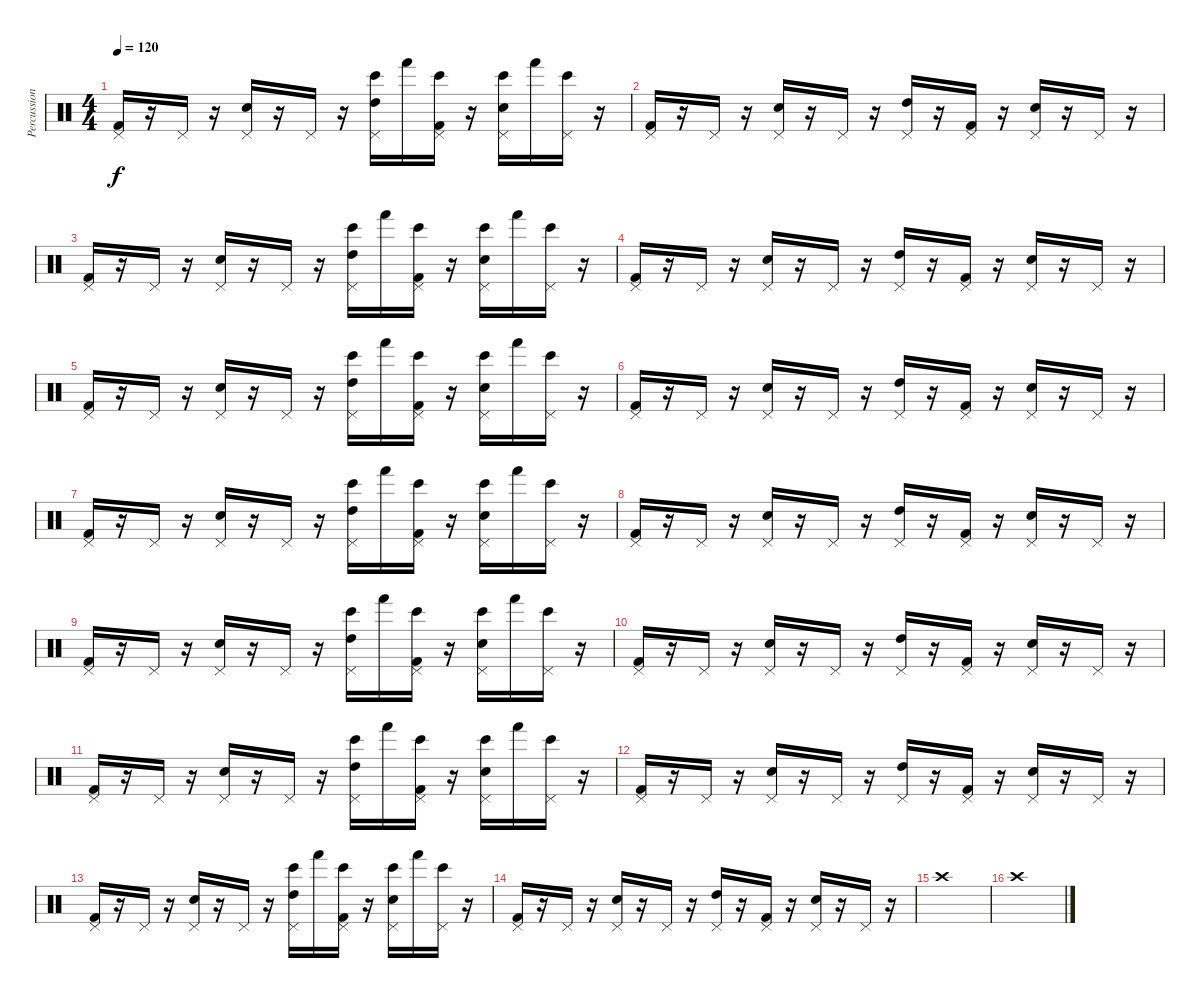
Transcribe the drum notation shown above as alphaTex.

\track ("Percussion" "Percussion") {instrument percussion}
\staff {score}
\articulation defaults
\ts (4 4)
\tempo 120
\clef neutral
\ks c
("Pedal Hi-Hat (hit)" "Kick (hit) 2").16{dy f} r.16 "Pedal Hi-Hat (hit)".16 r.16 ("Pedal Hi-Hat (hit)" "Snare (hit) 2").16 r.16 "Pedal Hi-Hat (hit)".16 r.16 ("Bongo High (hit)" "Pedal Hi-Hat (hit)" "High Tom (hit)").16 "Hand (hit)".16 ("Bongo High (hit)" "Pedal Hi-Hat (hit)" "Kick (hit) 2").16 r.16 ("Bongo High (hit)" "Pedal Hi-Hat (hit)" "Snare (hit) 2").16 "Hand (hit)".16 ("Bongo High (hit)" "Pedal Hi-Hat (hit)").16 r.16 |
("Pedal Hi-Hat (hit)" "Kick (hit) 2").16 r.16 "Pedal Hi-Hat (hit)".16 r.16 ("Pedal Hi-Hat (hit)" "Snare (hit) 2").16 r.16 "Pedal Hi-Hat (hit)".16 r.16 ("Pedal Hi-Hat (hit)" "High Tom (hit)").16 r.16 ("Pedal Hi-Hat (hit)" "Kick (hit) 2").16 r.16 ("Pedal Hi-Hat (hit)" "Snare (hit) 2").16 r.16 "Pedal Hi-Hat (hit)".16 r.16 |
("Pedal Hi-Hat (hit)" "Kick (hit) 2").16 r.16 "Pedal Hi-Hat (hit)".16 r.16 ("Pedal Hi-Hat (hit)" "Snare (hit) 2").16 r.16 "Pedal Hi-Hat (hit)".16 r.16 ("Bongo High (hit)" "Pedal Hi-Hat (hit)" "High Tom (hit)").16 "Hand (hit)".16 ("Bongo High (hit)" "Pedal Hi-Hat (hit)" "Kick (hit) 2").16 r.16 ("Bongo High (hit)" "Pedal Hi-Hat (hit)" "Snare (hit) 2").16 "Hand (hit)".16 ("Bongo High (hit)" "Pedal Hi-Hat (hit)").16 r.16 |
("Pedal Hi-Hat (hit)" "Kick (hit) 2").16 r.16 "Pedal Hi-Hat (hit)".16 r.16 ("Pedal Hi-Hat (hit)" "Snare (hit) 2").16 r.16 "Pedal Hi-Hat (hit)".16 r.16 ("Pedal Hi-Hat (hit)" "High Tom (hit)").16 r.16 ("Pedal Hi-Hat (hit)" "Kick (hit) 2").16 r.16 ("Pedal Hi-Hat (hit)" "Snare (hit) 2").16 r.16 "Pedal Hi-Hat (hit)".16 r.16 |
("Pedal Hi-Hat (hit)" "Kick (hit) 2").16 r.16 "Pedal Hi-Hat (hit)".16 r.16 ("Pedal Hi-Hat (hit)" "Snare (hit) 2").16 r.16 "Pedal Hi-Hat (hit)".16 r.16 ("Bongo High (hit)" "Pedal Hi-Hat (hit)" "High Tom (hit)").16 "Hand (hit)".16 ("Bongo High (hit)" "Pedal Hi-Hat (hit)" "Kick (hit) 2").16 r.16 ("Bongo High (hit)" "Pedal Hi-Hat (hit)" "Snare (hit) 2").16 "Hand (hit)".16 ("Bongo High (hit)" "Pedal Hi-Hat (hit)").16 r.16 |
("Pedal Hi-Hat (hit)" "Kick (hit) 2").16 r.16 "Pedal Hi-Hat (hit)".16 r.16 ("Pedal Hi-Hat (hit)" "Snare (hit) 2").16 r.16 "Pedal Hi-Hat (hit)".16 r.16 ("Pedal Hi-Hat (hit)" "High Tom (hit)").16 r.16 ("Pedal Hi-Hat (hit)" "Kick (hit) 2").16 r.16 ("Pedal Hi-Hat (hit)" "Snare (hit) 2").16 r.16 "Pedal Hi-Hat (hit)".16 r.16 |
("Pedal Hi-Hat (hit)" "Kick (hit) 2").16 r.16 "Pedal Hi-Hat (hit)".16 r.16 ("Pedal Hi-Hat (hit)" "Snare (hit) 2").16 r.16 "Pedal Hi-Hat (hit)".16 r.16 ("Bongo High (hit)" "Pedal Hi-Hat (hit)" "High Tom (hit)").16 "Hand (hit)".16 ("Bongo High (hit)" "Pedal Hi-Hat (hit)" "Kick (hit) 2").16 r.16 ("Bongo High (hit)" "Pedal Hi-Hat (hit)" "Snare (hit) 2").16 "Hand (hit)".16 ("Bongo High (hit)" "Pedal Hi-Hat (hit)").16 r.16 |
("Pedal Hi-Hat (hit)" "Kick (hit) 2").16 r.16 "Pedal Hi-Hat (hit)".16 r.16 ("Pedal Hi-Hat (hit)" "Snare (hit) 2").16 r.16 "Pedal Hi-Hat (hit)".16 r.16 ("Pedal Hi-Hat (hit)" "High Tom (hit)").16 r.16 ("Pedal Hi-Hat (hit)" "Kick (hit) 2").16 r.16 ("Pedal Hi-Hat (hit)" "Snare (hit) 2").16 r.16 "Pedal Hi-Hat (hit)".16 r.16 |
("Pedal Hi-Hat (hit)" "Kick (hit) 2").16 r.16 "Pedal Hi-Hat (hit)".16 r.16 ("Pedal Hi-Hat (hit)" "Snare (hit) 2").16 r.16 "Pedal Hi-Hat (hit)".16 r.16 ("Bongo High (hit)" "Pedal Hi-Hat (hit)" "High Tom (hit)").16 "Hand (hit)".16 ("Bongo High (hit)" "Pedal Hi-Hat (hit)" "Kick (hit) 2").16 r.16 ("Bongo High (hit)" "Pedal Hi-Hat (hit)" "Snare (hit) 2").16 "Hand (hit)".16 ("Bongo High (hit)" "Pedal Hi-Hat (hit)").16 r.16 |
("Pedal Hi-Hat (hit)" "Kick (hit) 2").16 r.16 "Pedal Hi-Hat (hit)".16 r.16 ("Pedal Hi-Hat (hit)" "Snare (hit) 2").16 r.16 "Pedal Hi-Hat (hit)".16 r.16 ("Pedal Hi-Hat (hit)" "High Tom (hit)").16 r.16 ("Pedal Hi-Hat (hit)" "Kick (hit) 2").16 r.16 ("Pedal Hi-Hat (hit)" "Snare (hit) 2").16 r.16 "Pedal Hi-Hat (hit)".16 r.16 |
("Pedal Hi-Hat (hit)" "Kick (hit) 2").16 r.16 "Pedal Hi-Hat (hit)".16 r.16 ("Pedal Hi-Hat (hit)" "Snare (hit) 2").16 r.16 "Pedal Hi-Hat (hit)".16 r.16 ("Bongo High (hit)" "Pedal Hi-Hat (hit)" "High Tom (hit)").16 "Hand (hit)".16 ("Bongo High (hit)" "Pedal Hi-Hat (hit)" "Kick (hit) 2").16 r.16 ("Bongo High (hit)" "Pedal Hi-Hat (hit)" "Snare (hit) 2").16 "Hand (hit)".16 ("Bongo High (hit)" "Pedal Hi-Hat (hit)").16 r.16 |
("Pedal Hi-Hat (hit)" "Kick (hit) 2").16 r.16 "Pedal Hi-Hat (hit)".16 r.16 ("Pedal Hi-Hat (hit)" "Snare (hit) 2").16 r.16 "Pedal Hi-Hat (hit)".16 r.16 ("Pedal Hi-Hat (hit)" "High Tom (hit)").16 r.16 ("Pedal Hi-Hat (hit)" "Kick (hit) 2").16 r.16 ("Pedal Hi-Hat (hit)" "Snare (hit) 2").16 r.16 "Pedal Hi-Hat (hit)".16 r.16 |
("Pedal Hi-Hat (hit)" "Kick (hit) 2").16 r.16 "Pedal Hi-Hat (hit)".16 r.16 ("Pedal Hi-Hat (hit)" "Snare (hit) 2").16 r.16 "Pedal Hi-Hat (hit)".16 r.16 ("Bongo High (hit)" "Pedal Hi-Hat (hit)" "High Tom (hit)").16 "Hand (hit)".16 ("Bongo High (hit)" "Pedal Hi-Hat (hit)" "Kick (hit) 2").16 r.16 ("Bongo High (hit)" "Pedal Hi-Hat (hit)" "Snare (hit) 2").16 "Hand (hit)".16 ("Bongo High (hit)" "Pedal Hi-Hat (hit)").16 r.16 |
("Pedal Hi-Hat (hit)" "Kick (hit) 2").16 r.16 "Pedal Hi-Hat (hit)".16 r.16 ("Pedal Hi-Hat (hit)" "Snare (hit) 2").16 r.16 "Pedal Hi-Hat (hit)".16 r.16 ("Pedal Hi-Hat (hit)" "High Tom (hit)").16 r.16 ("Pedal Hi-Hat (hit)" "Kick (hit) 2").16 r.16 ("Pedal Hi-Hat (hit)" "Snare (hit) 2").16 r.16 "Pedal Hi-Hat (hit)".16 r.16 |
"Crash high (hit)".1 |
"Crash high (hit)".1
